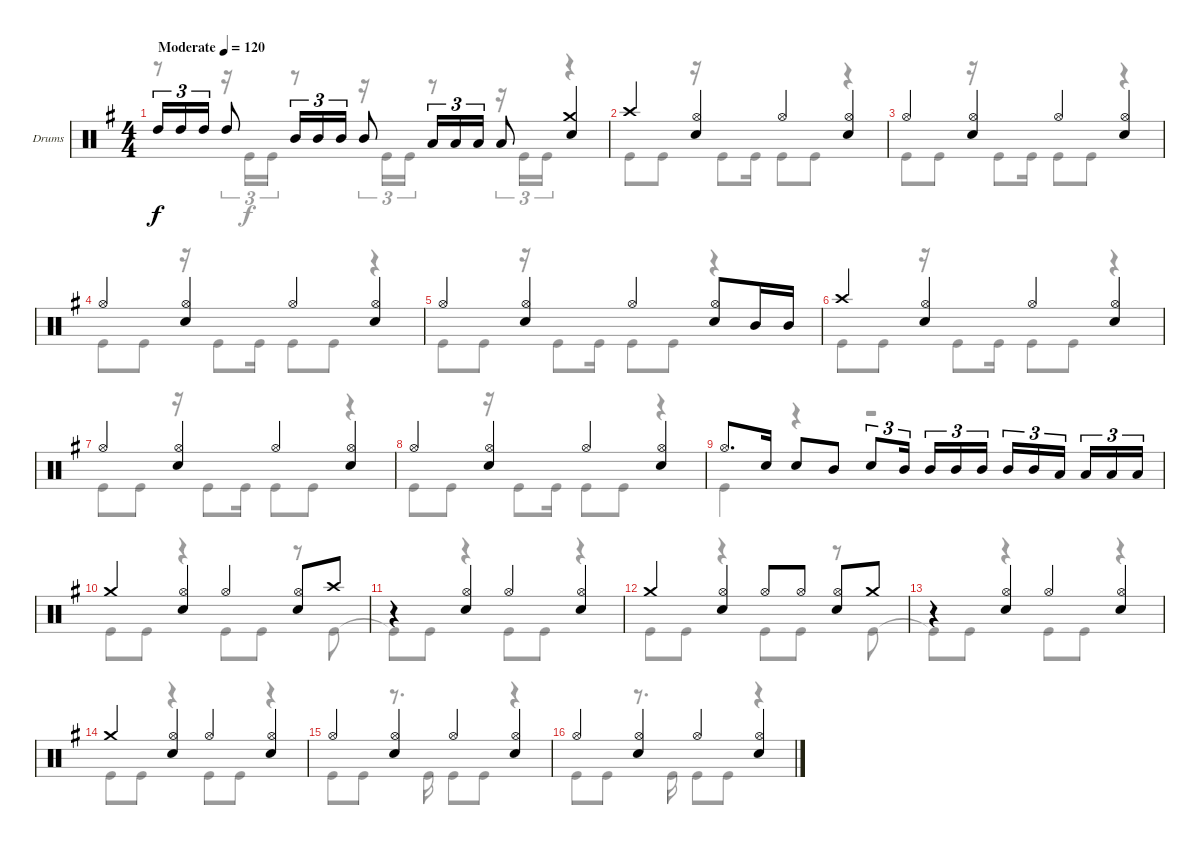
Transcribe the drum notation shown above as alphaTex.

\bracketExtendMode groupsimilarinstruments
\firstSystemTrackNameOrientation horizontal
\otherSystemsTrackNameOrientation horizontal
\track ("Drumkit" "Drums") {mute instrument percussion}
\staff {score}
\articulation defaults
\voice
\ts (4 4)
\beaming (8 2 2 2 2)
\tempo (120 "Moderate")
\clef neutral
\ks eminor "High Tom (hit)".16{tu (3 2) dy f} "High Tom (hit)".16{tu (3 2)} "High Tom (hit)".16{tu (3 2)} "High Tom (hit)".8 "Mid Tom (hit)".16{tu (3 2)} "Mid Tom (hit)".16{tu (3 2)} "Mid Tom (hit)".16{tu (3 2)} "Mid Tom (hit)".8 "Low Tom (hit)".16{tu (3 2)} "Low Tom (hit)".16{tu (3 2)} "Low Tom (hit)".16{tu (3 2)} "Low Tom (hit)".8
("Crash medium (hit)" "Snare (hit) 2").4 |
"Crash high (hit)".4 ("Hi-Hat (open)" "Snare (hit) 2").4 "Hi-Hat (open)".4 ("Hi-Hat (open)" "Snare (hit) 2").4 |
"Hi-Hat (open)".4 ("Hi-Hat (open)" "Snare (hit) 2").4 "Hi-Hat (open)".4 ("Hi-Hat (open)" "Snare (hit) 2").4 |
"Hi-Hat (open)".4 ("Hi-Hat (open)" "Snare (hit) 2").4 "Hi-Hat (open)".4 ("Hi-Hat (open)" "Snare (hit) 2").4 |
"Hi-Hat (open)".4 ("Hi-Hat (open)" "Snare (hit) 2").4 "Hi-Hat (open)".4 ("Hi-Hat (open)" "Snare (hit) 2").8 "Mid Tom (hit)".16 "Mid Tom (hit)".16 |
"Crash high (hit)".4 ("Hi-Hat (open)" "Snare (hit) 2").4 "Hi-Hat (open)".4 ("Hi-Hat (open)" "Snare (hit) 2").4 |
"Hi-Hat (open)".4 ("Hi-Hat (open)" "Snare (hit) 2").4 "Hi-Hat (open)".4 ("Hi-Hat (open)" "Snare (hit) 2").4 |
"Hi-Hat (open)".4 ("Hi-Hat (open)" "Snare (hit) 2").4 "Hi-Hat (open)".4 ("Hi-Hat (open)" "Snare (hit) 2").4 |
"Hi-Hat (open)".8{d} "Snare (hit) 2".16 "Snare (hit) 2".8 "Mid Tom (hit)".8 "Snare (hit) 2".8{tu (3 2)} "Mid Tom (hit)".16{tu (3 2)} "Mid Tom (hit)".16{tu (3 2)} "Mid Tom (hit)".16{tu (3 2)} "Mid Tom (hit)".16{tu (3 2)} "Mid Tom (hit)".16{tu (3 2)} "Mid Tom (hit)".16{tu (3 2)} "Low Tom (hit)".16{tu (3 2)} "Low Tom (hit)".16{tu (3 2)} "Low Tom (hit)".16{tu (3 2)} "Low Tom (hit)".16{tu (3 2)} |
"Crash medium (hit)".4 ("Hi-Hat (open)" "Snare (hit) 2").4 "Hi-Hat (open)".4 ("Hi-Hat (open)" "Snare (hit) 2").8 "Crash high (hit)".8 |
r.4 ("Hi-Hat (open)" "Snare (hit) 2").4 "Hi-Hat (open)".4 ("Hi-Hat (open)" "Snare (hit) 2").4 |
"Crash medium (hit)".4 ("Hi-Hat (open)" "Snare (hit) 2").4 "Hi-Hat (open)".8 "Hi-Hat (open)".8 ("Hi-Hat (open)" "Snare (hit) 2").8 "Crash medium (hit)".8 |
r.4 ("Hi-Hat (open)" "Snare (hit) 2").4 "Hi-Hat (open)".4 ("Hi-Hat (open)" "Snare (hit) 2").4 |
"Crash medium (hit)".4 ("Hi-Hat (open)" "Snare (hit) 2").4 "Hi-Hat (open)".4 ("Hi-Hat (open)" "Snare (hit) 2").4 |
"Hi-Hat (open)".4 ("Hi-Hat (open)" "Snare (hit) 2").4 "Hi-Hat (open)".4 ("Hi-Hat (open)" "Snare (hit) 2").4 |
"Hi-Hat (open)".4 ("Hi-Hat (open)" "Snare (hit) 2").4 "Hi-Hat (open)".4 ("Hi-Hat (open)" "Snare (hit) 2").4
\voice
\clef neutral
\ottava regular
\simile none
\ks eminor
r.8{dy f} r.16{tu (3 2)} "Kick (hit)".16{tu (3 2)} "Kick (hit)".16{tu (3 2)} r.8 r.16{tu (3 2)} "Kick (hit)".16{tu (3 2)} "Kick (hit)".16{tu (3 2)} r.8 r.16{tu (3 2)} "Kick (hit)".16{tu (3 2)} "Kick (hit)".16{tu (3 2)} r.4 |
"Kick (hit)".8 "Kick (hit)".8 r.16 "Kick (hit)".8 "Kick (hit)".16 "Kick (hit)".8 "Kick (hit)".8 r.4 |
"Kick (hit)".8 "Kick (hit)".8 r.16 "Kick (hit)".8 "Kick (hit)".16 "Kick (hit)".8 "Kick (hit)".8 r.4 |
"Kick (hit)".8 "Kick (hit)".8 r.16 "Kick (hit)".8 "Kick (hit)".16 "Kick (hit)".8 "Kick (hit)".8 r.4 |
"Kick (hit)".8 "Kick (hit)".8 r.16 "Kick (hit)".8 "Kick (hit)".16 "Kick (hit)".8 "Kick (hit)".8 r.4 |
"Kick (hit)".8 "Kick (hit)".8 r.16 "Kick (hit)".8 "Kick (hit)".16 "Kick (hit)".8 "Kick (hit)".8 r.4 |
"Kick (hit)".8 "Kick (hit)".8 r.16 "Kick (hit)".8 "Kick (hit)".16 "Kick (hit)".8 "Kick (hit)".8 r.4 |
"Kick (hit)".8 "Kick (hit)".8 r.16 "Kick (hit)".8 "Kick (hit)".16 "Kick (hit)".8 "Kick (hit)".8 r.4 |
"Kick (hit)".4 r.4 r.2 |
"Kick (hit)".8 "Kick (hit)".8 r.4 "Kick (hit)".8 "Kick (hit)".8 r.8 "Kick (hit)".8 |
"Kick (hit)"{t}.8 "Kick (hit)".8 r.4 "Kick (hit)".8 "Kick (hit)".8 r.4 |
"Kick (hit)".8 "Kick (hit)".8 r.4 "Kick (hit)".8 "Kick (hit)".8 r.8 "Kick (hit)".8 |
"Kick (hit)"{t}.8 "Kick (hit)".8 r.4 "Kick (hit)".8 "Kick (hit)".8 r.4 |
"Kick (hit)".8 "Kick (hit)".8 r.4 "Kick (hit)".8 "Kick (hit)".8 r.4 |
"Kick (hit)".8 "Kick (hit)".8 r.8{d} "Kick (hit)".16 "Kick (hit)".8 "Kick (hit)".8 r.4 |
"Kick (hit)".8 "Kick (hit)".8 r.8{d} "Kick (hit)".16 "Kick (hit)".8 "Kick (hit)".8 r.4
